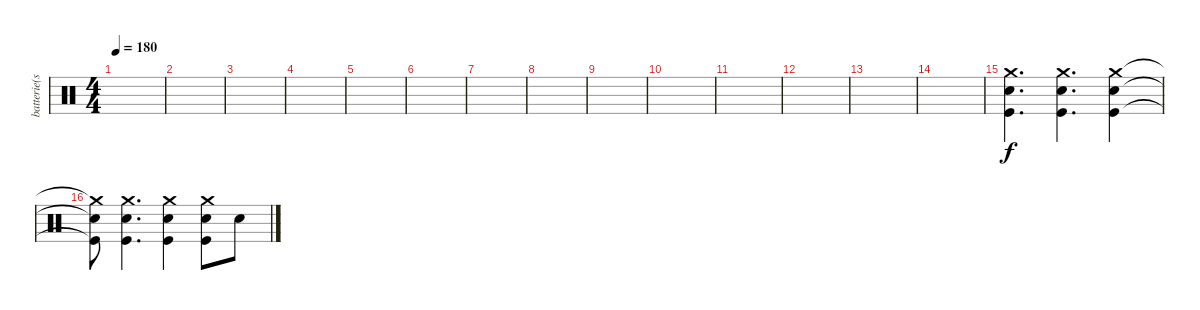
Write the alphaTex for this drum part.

\track ("batterie(scott)" "batterie(s") {instrument percussion}
\staff {score}
\articulation defaults
\ts (4 4)
\tempo 180
\clef neutral
\ks c
|
|
|
|
|
|
|
|
|
|
|
|
|
|
("Crash medium (hit)" "Snare (hit) 2" "Kick (hit)").4{d} ("Crash medium (hit)" "Snare (hit) 2" "Kick (hit)").4{d} ("Crash medium (hit)" "Snare (hit) 2" "Kick (hit)").4 |
("Crash medium (hit)"{t} "Snare (hit) 2"{t} "Kick (hit)"{t}).8 ("Crash medium (hit)" "Snare (hit) 2" "Kick (hit)").4{d} ("Crash medium (hit)" "Snare (hit) 2" "Kick (hit)").4 ("Crash medium (hit)" "Snare (hit) 2" "Kick (hit)").8 "Snare (hit) 2".8
